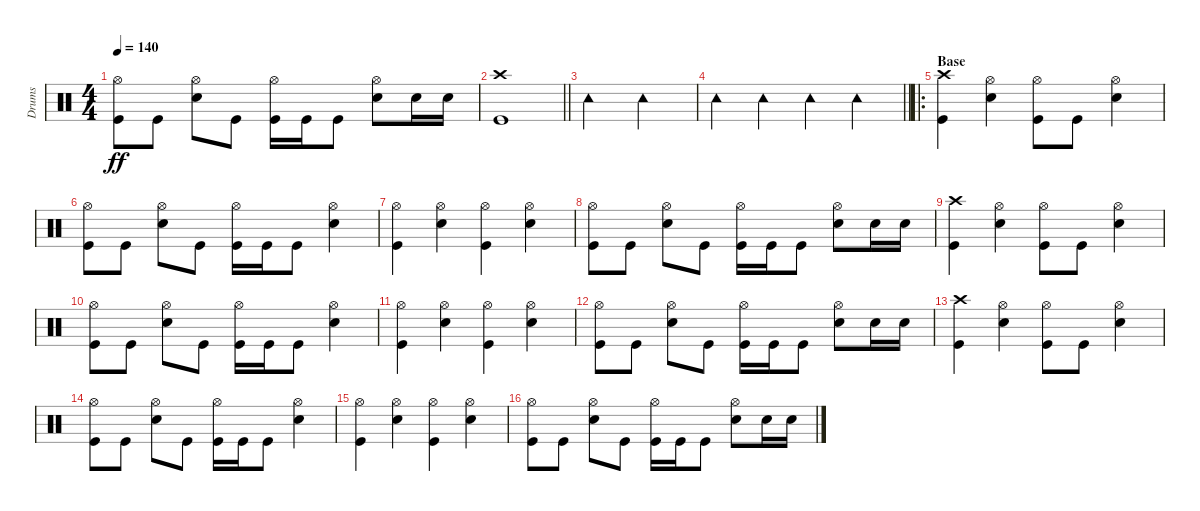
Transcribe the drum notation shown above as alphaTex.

\track ("Drums" "Drums") {instrument percussion}
\staff {score}
\articulation defaults
\ts (4 4)
\tempo 140
\clef neutral
\ks c
("Hi-Hat (open)" "Kick (hit)").8{dy ff} "Kick (hit)".8 ("Hi-Hat (open)" "Snare (hit) 2").8 "Kick (hit)".8 ("Hi-Hat (open)" "Kick (hit)").16 "Kick (hit)".16 "Kick (hit)".8 ("Hi-Hat (open)" "Snare (hit) 2").8 "Snare (hit) 2".16 "Snare (hit) 2".16 |
\barLineRight lightlight
("Crash high (hit)" "Kick (hit)").1 |
"Tambourine (hit)".2 "Tambourine (hit)".2 |
\barLineRight lightlight "Tambourine (hit)".4 "Tambourine (hit)".4 "Tambourine (hit)".4 "Tambourine (hit)".4
|
\ro
\section ("" "Base")
("Crash high (hit)" "Kick (hit)").4 ("Hi-Hat (open)" "Snare (hit) 2").4 ("Hi-Hat (open)" "Kick (hit)").8 "Kick (hit)".8 ("Hi-Hat (open)" "Snare (hit) 2").4 |
("Hi-Hat (open)" "Kick (hit)").8 "Kick (hit)".8 ("Hi-Hat (open)" "Snare (hit) 2").8 "Kick (hit)".8 ("Hi-Hat (open)" "Kick (hit)").16 "Kick (hit)".16 "Kick (hit)".8 ("Hi-Hat (open)" "Snare (hit) 2").4 |
("Hi-Hat (open)" "Kick (hit)").4 ("Hi-Hat (open)" "Snare (hit) 2").4 ("Hi-Hat (open)" "Kick (hit)").4 ("Hi-Hat (open)" "Snare (hit) 2").4 |
("Hi-Hat (open)" "Kick (hit)").8 "Kick (hit)".8 ("Hi-Hat (open)" "Snare (hit) 2").8 "Kick (hit)".8 ("Hi-Hat (open)" "Kick (hit)").16 "Kick (hit)".16 "Kick (hit)".8 ("Hi-Hat (open)" "Snare (hit) 2").8 "Snare (hit) 2".16 "Snare (hit) 2".16 |
("Crash high (hit)" "Kick (hit)").4 ("Hi-Hat (open)" "Snare (hit) 2").4 ("Hi-Hat (open)" "Kick (hit)").8 "Kick (hit)".8 ("Hi-Hat (open)" "Snare (hit) 2").4 |
("Hi-Hat (open)" "Kick (hit)").8 "Kick (hit)".8 ("Hi-Hat (open)" "Snare (hit) 2").8 "Kick (hit)".8 ("Hi-Hat (open)" "Kick (hit)").16 "Kick (hit)".16 "Kick (hit)".8 ("Hi-Hat (open)" "Snare (hit) 2").4 |
("Hi-Hat (open)" "Kick (hit)").4 ("Hi-Hat (open)" "Snare (hit) 2").4 ("Hi-Hat (open)" "Kick (hit)").4 ("Hi-Hat (open)" "Snare (hit) 2").4 |
("Hi-Hat (open)" "Kick (hit)").8 "Kick (hit)".8 ("Hi-Hat (open)" "Snare (hit) 2").8 "Kick (hit)".8 ("Hi-Hat (open)" "Kick (hit)").16 "Kick (hit)".16 "Kick (hit)".8 ("Hi-Hat (open)" "Snare (hit) 2").8 "Snare (hit) 2".16 "Snare (hit) 2".16 |
("Crash high (hit)" "Kick (hit)").4 ("Hi-Hat (open)" "Snare (hit) 2").4 ("Hi-Hat (open)" "Kick (hit)").8 "Kick (hit)".8 ("Hi-Hat (open)" "Snare (hit) 2").4 |
("Hi-Hat (open)" "Kick (hit)").8 "Kick (hit)".8 ("Hi-Hat (open)" "Snare (hit) 2").8 "Kick (hit)".8 ("Hi-Hat (open)" "Kick (hit)").16 "Kick (hit)".16 "Kick (hit)".8 ("Hi-Hat (open)" "Snare (hit) 2").4 |
("Hi-Hat (open)" "Kick (hit)").4 ("Hi-Hat (open)" "Snare (hit) 2").4 ("Hi-Hat (open)" "Kick (hit)").4 ("Hi-Hat (open)" "Snare (hit) 2").4 |
("Hi-Hat (open)" "Kick (hit)").8 "Kick (hit)".8 ("Hi-Hat (open)" "Snare (hit) 2").8 "Kick (hit)".8 ("Hi-Hat (open)" "Kick (hit)").16 "Kick (hit)".16 "Kick (hit)".8 ("Hi-Hat (open)" "Snare (hit) 2").8 "Snare (hit) 2".16 "Snare (hit) 2".16
